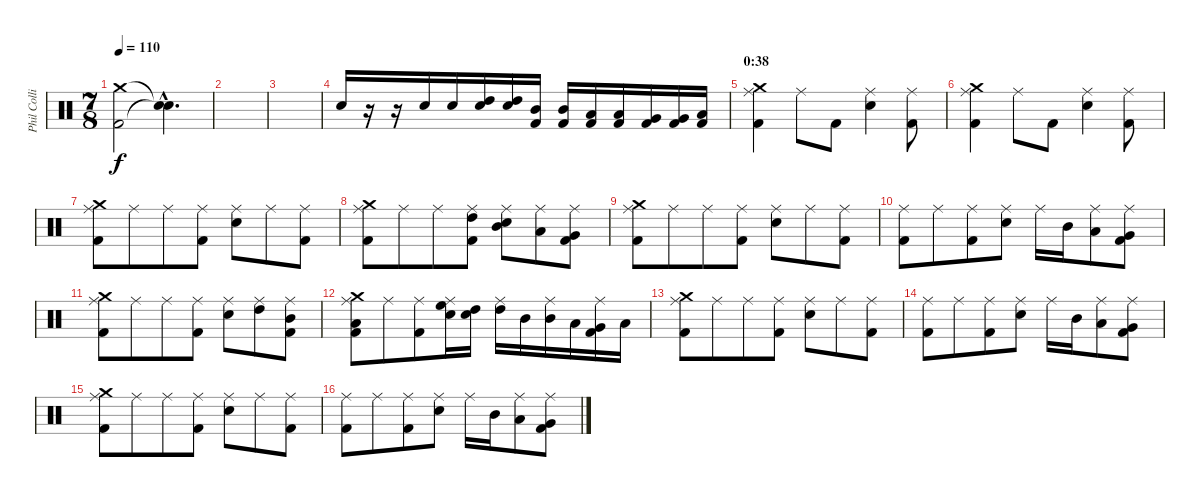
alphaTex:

\track ("Phil Collins (drums)" "Phil Colli") {instrument percussion}
\staff {score}
\articulation defaults
\ts (7 8)
\tempo 110
\clef neutral
\ks c
("Crash medium (hit)" "Kick (hit) 2").2{dy f} ("Snare (hit)"{hac t} "Snare (hit)"{hac t}).4{d} |
|
|
"Electric Snare (hit)".16 r.16 r.16 "Electric Snare (hit)".16 "Electric Snare (hit)".16 ("High Tom (hit)" "Electric Snare (hit)").16 ("High Tom (hit)" "Electric Snare (hit)").16 ("Mid Tom (hit)" "Kick (hit) 2").16 ("Mid Tom (hit)" "Kick (hit) 2").16 ("Low Tom (hit)" "Kick (hit) 2").16 ("Low Tom (hit)" "Kick (hit) 2").16 ("Very Low Tom (hit)" "Kick (hit) 2").16 ("Very Low Tom (hit)" "Kick (hit) 2").16 ("Low Floor Tom (hit)" "Kick (hit) 2").16 |
\section ("" "0:38")
("Ride (middle)" "Crash medium (hit)" "Kick (hit) 2").4 "Ride (middle)".8 "Kick (hit) 2".8 ("Ride (middle)" "Electric Snare (hit)").4 ("Ride (middle)" "Kick (hit) 2").8 |
("Ride (middle)" "Crash medium (hit)" "Kick (hit) 2").4 "Ride (middle)".8 "Kick (hit) 2".8 ("Ride (middle)" "Electric Snare (hit)").4 ("Ride (middle)" "Kick (hit) 2").8 |
("Ride (middle)" "Crash medium (hit)" "Kick (hit) 2").8 "Ride (middle)".8 "Ride (middle)".8 ("Ride (middle)" "Kick (hit) 2").8 ("Ride (middle)" "Electric Snare (hit)").8 "Ride (middle)".8 ("Ride (middle)" "Kick (hit) 2").8 |
("Ride (middle)" "Crash medium (hit)" "Kick (hit) 2").8 "Ride (middle)".8 "Ride (middle)".8 ("Ride (middle)" "High Tom (hit)" "Kick (hit) 2").8 ("Ride (middle)" "Mid Tom (hit)" "Electric Snare (hit)").8 ("Ride (middle)" "Low Tom (hit)").8 ("Ride (middle)" "Very Low Tom (hit)" "Kick (hit) 2").8 |
("Ride (middle)" "Crash medium (hit)" "Kick (hit) 2").8 "Ride (middle)".8 "Ride (middle)".8 ("Ride (middle)" "Kick (hit) 2").8 ("Ride (middle)" "Electric Snare (hit)").8 "Ride (middle)".8 ("Ride (middle)" "Kick (hit) 2").8 |
("Ride (middle)" "Kick (hit) 2").8 "Ride (middle)".8 ("Ride (middle)" "Kick (hit) 2").8 ("Ride (middle)" "Electric Snare (hit)").8 "Ride (middle)".16 "Mid Tom (hit)".16 ("Ride (middle)" "Low Tom (hit)").8 ("Ride (middle)" "Very Low Tom (hit)" "Kick (hit) 2").8 |
("Ride (middle)" "Crash medium (hit)" "Kick (hit) 2").8 "Ride (middle)".8 "Ride (middle)".8 ("Ride (middle)" "Kick (hit) 2").8 ("Ride (middle)" "Electric Snare (hit)").8 ("Ride (middle)" "High Tom (hit)").8 ("Ride (middle)" "Mid Tom (hit)" "Kick (hit) 2").8 |
("Crash medium (hit)" "Ride (middle)" "Low Tom (hit)" "Kick (hit) 2").8 "Ride (middle)".8 ("Ride (middle)" "Kick (hit) 2").8 ("Ride (middle)" "High Floor Tom (hit)" "Electric Snare (hit)").16 ("High Tom (hit)" "Electric Snare (hit)").16 ("Ride (middle)" "High Tom (hit)").16 "Mid Tom (hit)".16 ("Ride (middle)" "Mid Tom (hit)").16 "Low Tom (hit)".16 ("Ride (middle)" "Very Low Tom (hit)" "Kick (hit) 2").16 "Low Floor Tom (hit)".16 |
("Ride (middle)" "Crash medium (hit)" "Kick (hit) 2").8 "Ride (middle)".8 "Ride (middle)".8 ("Ride (middle)" "Kick (hit) 2").8 ("Ride (middle)" "Electric Snare (hit)").8 "Ride (middle)".8 ("Ride (middle)" "Kick (hit) 2").8 |
("Ride (middle)" "Kick (hit) 2").8 "Ride (middle)".8 ("Ride (middle)" "Kick (hit) 2").8 ("Ride (middle)" "Electric Snare (hit)").8 "Ride (middle)".16 "Mid Tom (hit)".16 ("Ride (middle)" "Low Tom (hit)").8 ("Ride (middle)" "Very Low Tom (hit)" "Kick (hit) 2").8 |
("Ride (middle)" "Crash medium (hit)" "Kick (hit) 2").8 "Ride (middle)".8 "Ride (middle)".8 ("Ride (middle)" "Kick (hit) 2").8 ("Ride (middle)" "Electric Snare (hit)").8 "Ride (middle)".8 ("Ride (middle)" "Kick (hit) 2").8 |
("Ride (middle)" "Kick (hit) 2").8 "Ride (middle)".8 ("Ride (middle)" "Kick (hit) 2").8 ("Ride (middle)" "Electric Snare (hit)").8 "Ride (middle)".16 "Mid Tom (hit)".16 ("Ride (middle)" "Low Tom (hit)").8 ("Ride (middle)" "Very Low Tom (hit)" "Kick (hit) 2").8
